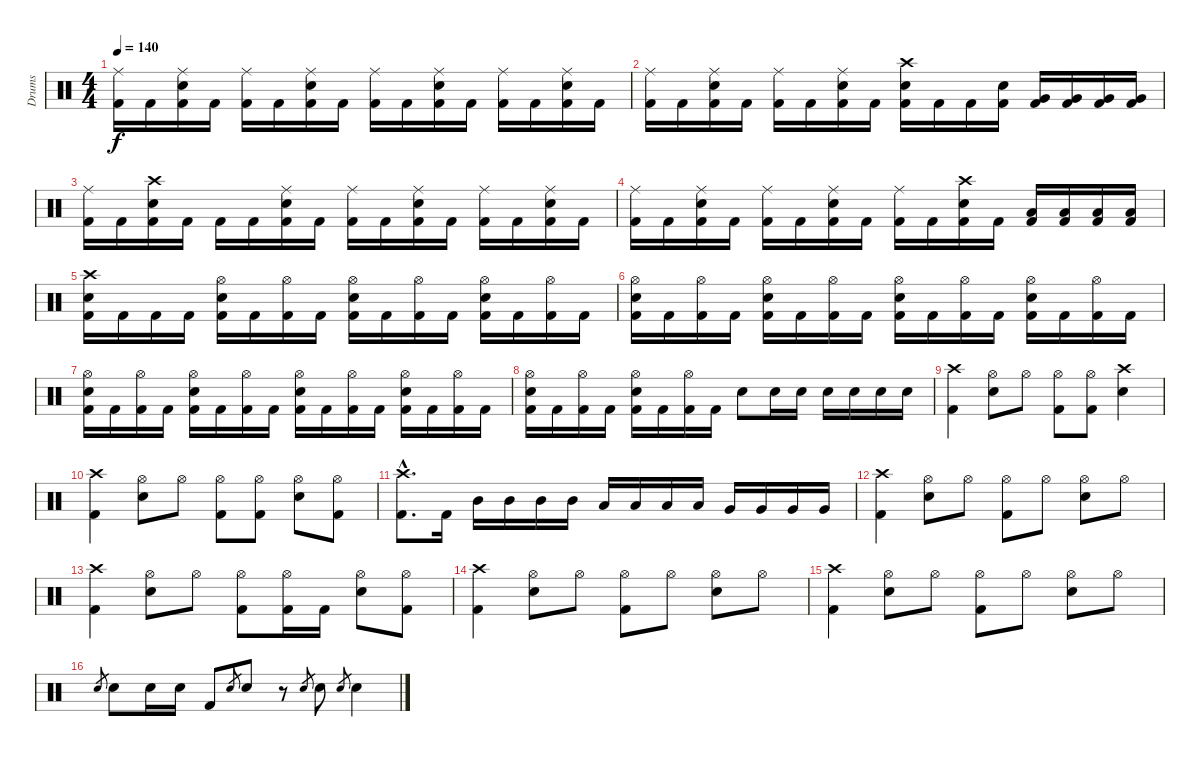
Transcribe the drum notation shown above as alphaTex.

\track ("Drums" "Drums") {instrument percussion}
\staff {score}
\articulation defaults
\ts (4 4)
\tempo 140
\clef neutral
\ks c
("Ride (middle)" "Kick (hit) 2").16{dy f} "Kick (hit) 2".16 ("Ride (middle)" "Electric Snare (hit)" "Kick (hit) 2").16 "Kick (hit) 2".16 ("Ride (middle)" "Kick (hit) 2").16 "Kick (hit) 2".16 ("Ride (middle)" "Electric Snare (hit)" "Kick (hit) 2").16 "Kick (hit) 2".16 ("Ride (middle)" "Kick (hit) 2").16 "Kick (hit) 2".16 ("Ride (middle)" "Electric Snare (hit)" "Kick (hit) 2").16 "Kick (hit) 2".16 ("Ride (middle)" "Kick (hit) 2").16 "Kick (hit) 2".16 ("Ride (middle)" "Electric Snare (hit)" "Kick (hit) 2").16 "Kick (hit) 2".16 |
("Ride (middle)" "Kick (hit) 2").16 "Kick (hit) 2".16 ("Ride (middle)" "Electric Snare (hit)" "Kick (hit) 2").16 "Kick (hit) 2".16 ("Ride (middle)" "Kick (hit) 2").16 "Kick (hit) 2".16 ("Ride (middle)" "Electric Snare (hit)" "Kick (hit) 2").16 "Kick (hit) 2".16 ("Crash high (hit)" "Electric Snare (hit)" "Kick (hit) 2").16 "Kick (hit) 2".16 "Kick (hit) 2".16 ("Electric Snare (hit)" "Kick (hit) 2").16 ("Very Low Tom (hit)" "Kick (hit) 2").16 ("Very Low Tom (hit)" "Kick (hit) 2").16 ("Very Low Tom (hit)" "Kick (hit) 2").16 ("Very Low Tom (hit)" "Kick (hit) 2").16 |
("Ride (middle)" "Kick (hit) 2").16 "Kick (hit) 2".16 ("Crash high (hit)" "Electric Snare (hit)" "Kick (hit) 2").16 "Kick (hit) 2".16 "Kick (hit) 2".16 "Kick (hit) 2".16 ("Ride (middle)" "Electric Snare (hit)" "Kick (hit) 2").16 "Kick (hit) 2".16 ("Ride (middle)" "Kick (hit) 2").16 "Kick (hit) 2".16 ("Ride (middle)" "Electric Snare (hit)" "Kick (hit) 2").16 "Kick (hit) 2".16 ("Ride (middle)" "Kick (hit) 2").16 "Kick (hit) 2".16 ("Ride (middle)" "Electric Snare (hit)" "Kick (hit) 2").16 "Kick (hit) 2".16 |
("Ride (middle)" "Kick (hit) 2").16 "Kick (hit) 2".16 ("Ride (middle)" "Electric Snare (hit)" "Kick (hit) 2").16 "Kick (hit) 2".16 ("Ride (middle)" "Kick (hit) 2").16 "Kick (hit) 2".16 ("Ride (middle)" "Electric Snare (hit)" "Kick (hit) 2").16 "Kick (hit) 2".16 ("Ride (middle)" "Kick (hit) 2").16 "Kick (hit) 2".16 ("Crash high (hit)" "Electric Snare (hit)" "Kick (hit) 2").16 "Kick (hit) 2".16 ("Low Tom (hit)" "Kick (hit) 2").16 ("Low Tom (hit)" "Kick (hit) 2").16 ("Low Tom (hit)" "Kick (hit) 2").16 ("Low Tom (hit)" "Kick (hit) 2").16 |
("Crash high (hit)" "Electric Snare (hit)" "Kick (hit) 2").16 "Kick (hit) 2".16 "Kick (hit) 2".16 "Kick (hit) 2".16 ("Hi-Hat (open)" "Electric Snare (hit)" "Kick (hit) 2").16 "Kick (hit) 2".16 ("Hi-Hat (open)" "Kick (hit) 2").16 "Kick (hit) 2".16 ("Hi-Hat (open)" "Electric Snare (hit)" "Kick (hit) 2").16 "Kick (hit) 2".16 ("Hi-Hat (open)" "Kick (hit) 2").16 "Kick (hit) 2".16 ("Hi-Hat (open)" "Electric Snare (hit)" "Kick (hit) 2").16 "Kick (hit) 2".16 ("Hi-Hat (open)" "Kick (hit) 2").16 "Kick (hit) 2".16 |
("Hi-Hat (open)" "Electric Snare (hit)" "Kick (hit) 2").16 "Kick (hit) 2".16 ("Hi-Hat (open)" "Kick (hit) 2").16 "Kick (hit) 2".16 ("Hi-Hat (open)" "Electric Snare (hit)" "Kick (hit) 2").16 "Kick (hit) 2".16 ("Hi-Hat (open)" "Kick (hit) 2").16 "Kick (hit) 2".16 ("Hi-Hat (open)" "Electric Snare (hit)" "Kick (hit) 2").16 "Kick (hit) 2".16 ("Hi-Hat (open)" "Kick (hit) 2").16 "Kick (hit) 2".16 ("Hi-Hat (open)" "Electric Snare (hit)" "Kick (hit) 2").16 "Kick (hit) 2".16 ("Hi-Hat (open)" "Kick (hit) 2").16 "Kick (hit) 2".16 |
("Hi-Hat (open)" "Electric Snare (hit)" "Kick (hit) 2").16 "Kick (hit) 2".16 ("Hi-Hat (open)" "Kick (hit) 2").16 "Kick (hit) 2".16 ("Hi-Hat (open)" "Electric Snare (hit)" "Kick (hit) 2").16 "Kick (hit) 2".16 ("Hi-Hat (open)" "Kick (hit) 2").16 "Kick (hit) 2".16 ("Hi-Hat (open)" "Electric Snare (hit)" "Kick (hit) 2").16 "Kick (hit) 2".16 ("Hi-Hat (open)" "Kick (hit) 2").16 "Kick (hit) 2".16 ("Hi-Hat (open)" "Electric Snare (hit)" "Kick (hit) 2").16 "Kick (hit) 2".16 ("Hi-Hat (open)" "Kick (hit) 2").16 "Kick (hit) 2".16 |
("Hi-Hat (open)" "Electric Snare (hit)" "Kick (hit) 2").16 "Kick (hit) 2".16 ("Hi-Hat (open)" "Kick (hit) 2").16 "Kick (hit) 2".16 ("Hi-Hat (open)" "Electric Snare (hit)" "Kick (hit) 2").16 "Kick (hit) 2".16 ("Hi-Hat (open)" "Kick (hit) 2").16 "Kick (hit) 2".16 "Electric Snare (hit)".8 "Electric Snare (hit)".16 "Electric Snare (hit)".16 "Electric Snare (hit)".16 "Electric Snare (hit)".16 "Electric Snare (hit)".16 "Electric Snare (hit)".16 |
("Crash high (hit)" "Kick (hit) 2").4 ("Hi-Hat (open)" "Electric Snare (hit)").8 "Hi-Hat (open)".8 ("Hi-Hat (open)" "Kick (hit) 2").8 ("Hi-Hat (open)" "Kick (hit) 2").8 ("Crash high (hit)" "Electric Snare (hit)").4 |
("Crash high (hit)" "Kick (hit) 2").4 ("Hi-Hat (open)" "Electric Snare (hit)").8 "Hi-Hat (open)".8 ("Hi-Hat (open)" "Kick (hit) 2").8 ("Hi-Hat (open)" "Kick (hit) 2").8 ("Hi-Hat (open)" "Electric Snare (hit)").8 ("Hi-Hat (open)" "Kick (hit) 2").8 |
("Crash high (hit)"{hac} "Kick (hit) 2"{hac}).8{d} "Kick (hit) 2".16 "Mid Tom (hit)".16 "Mid Tom (hit)".16 "Mid Tom (hit)".16 "Mid Tom (hit)".16 "Low Tom (hit)".16 "Low Tom (hit)".16 "Low Tom (hit)".16 "Low Tom (hit)".16 "Very Low Tom (hit)".16 "Very Low Tom (hit)".16 "Very Low Tom (hit)".16 "Very Low Tom (hit)".16 |
("Crash high (hit)" "Kick (hit) 2").4 ("Hi-Hat (open)" "Electric Snare (hit)").8 "Hi-Hat (open)".8 ("Hi-Hat (open)" "Kick (hit) 2").8 "Hi-Hat (open)".8 ("Hi-Hat (open)" "Electric Snare (hit)").8 "Hi-Hat (open)".8 |
("Crash high (hit)" "Kick (hit) 2").4 ("Hi-Hat (open)" "Electric Snare (hit)").8 "Hi-Hat (open)".8 ("Hi-Hat (open)" "Kick (hit) 2").8 ("Hi-Hat (open)" "Kick (hit) 2").16 "Kick (hit) 2".16 ("Hi-Hat (open)" "Electric Snare (hit)").8 ("Hi-Hat (open)" "Kick (hit) 2").8 |
("Crash high (hit)" "Kick (hit) 2").4 ("Hi-Hat (open)" "Electric Snare (hit)").8 "Hi-Hat (open)".8 ("Hi-Hat (open)" "Kick (hit) 2").8 "Hi-Hat (open)".8 ("Hi-Hat (open)" "Electric Snare (hit)").8 "Hi-Hat (open)".8 |
("Crash high (hit)" "Kick (hit) 2").4 ("Hi-Hat (open)" "Electric Snare (hit)").8 "Hi-Hat (open)".8 ("Hi-Hat (open)" "Kick (hit) 2").8 "Hi-Hat (open)".8 ("Hi-Hat (open)" "Electric Snare (hit)").8 "Hi-Hat (open)".8 |
"Electric Snare (hit)".8{gr} "Electric Snare (hit)".8 "Electric Snare (hit)".16 "Electric Snare (hit)".16 "Kick (hit) 2".8 "Electric Snare (hit)".8{gr} "Electric Snare (hit)".8 r.8 "Electric Snare (hit)".8{gr} "Electric Snare (hit)".8 "Electric Snare (hit)".8{gr} "Electric Snare (hit)".4
